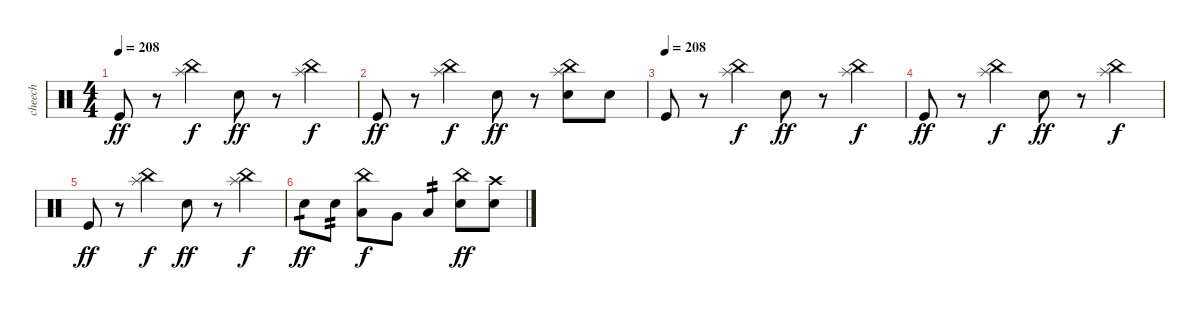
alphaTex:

\track ("cheech" "cheech") {instrument percussion}
\staff {score}
\articulation defaults
\ts (4 4)
\tempo 208
\clef neutral
\ks c "Kick (hit)".8{dy ff}
r.8 ("China (hit)" "Splash (hit)").4{dy f} "Electric Snare (hit)".8{dy ff} r.8 ("China (hit)" "Splash (hit)").4{dy f} |
"Kick (hit)".8{dy ff} r.8 ("China (hit)" "Splash (hit)").4{dy f} "Electric Snare (hit)".8{dy ff} r.8 ("China (hit)" "Splash (hit)" "Electric Snare (hit)").8 "Electric Snare (hit)".8 |
\tempo (208)
"Kick (hit)".8 r.8 ("China (hit)" "Splash (hit)").4{dy f} "Electric Snare (hit)".8{dy ff} r.8 ("China (hit)" "Splash (hit)").4{dy f} |
"Kick (hit)".8{dy ff} r.8 ("China (hit)" "Splash (hit)").4{dy f} "Electric Snare (hit)".8{dy ff} r.8 ("China (hit)" "Splash (hit)").4{dy f} |
"Kick (hit)".8{dy ff} r.8 ("China (hit)" "Splash (hit)").4{dy f} "Electric Snare (hit)".8{dy ff} r.8 ("China (hit)" "Splash (hit)").4{dy f} |
"Electric Snare (hit)".8{tp 1 dy ff} "Electric Snare (hit)".8{tp 2} ("China (hit)" "Low Tom (hit)").8{dy f} "Very Low Tom (hit)".8 "Low Floor Tom (hit)".4{tp 2} ("China (hit)" "Electric Snare (hit)").8{dy ff} ("Crash high (hit)" "Electric Snare (hit)").8
